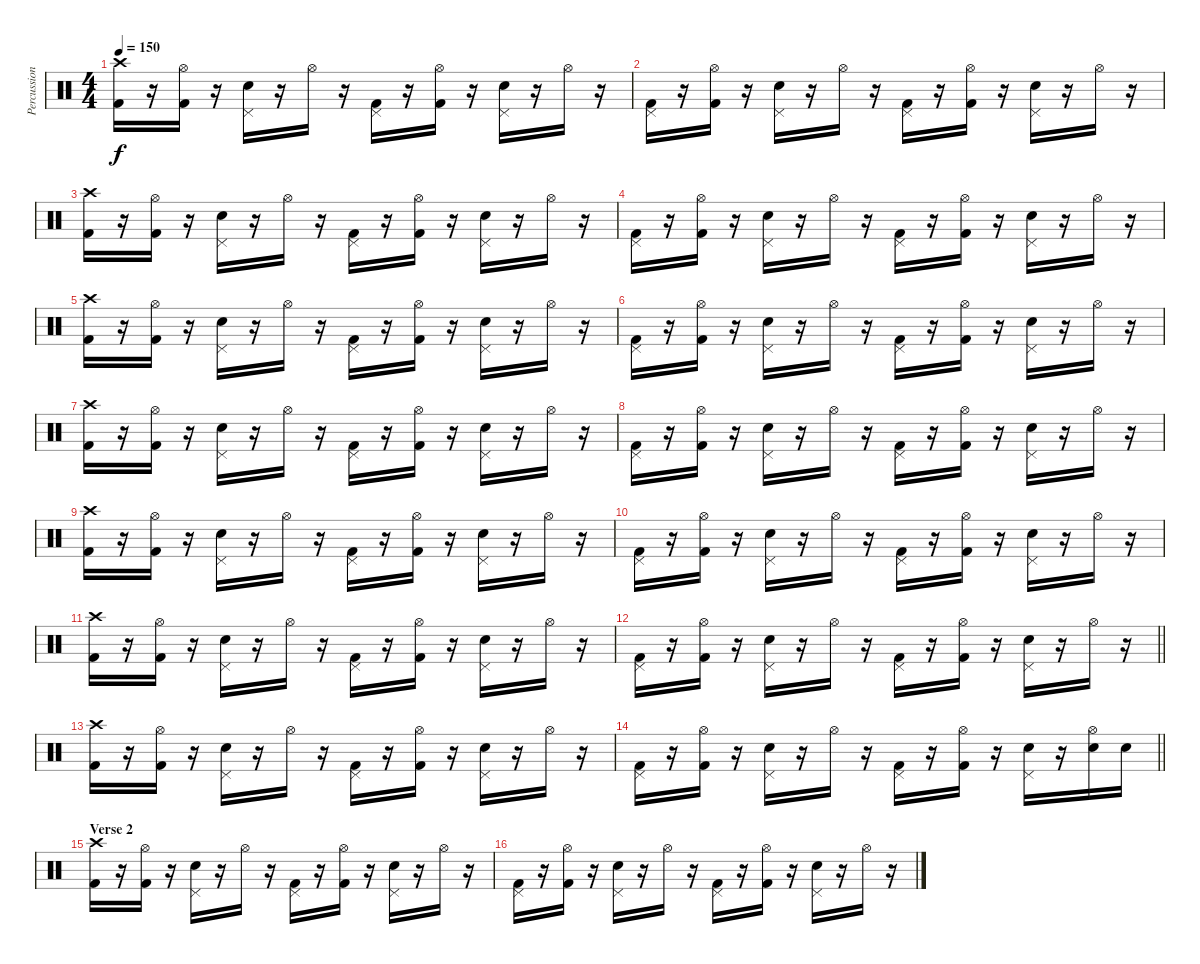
\track ("Percussion" "Percussion") {instrument percussion}
\staff {score}
\articulation defaults
\ts (4 4)
\tempo 150
\clef neutral
\ks c
("Crash high (hit)" "Kick (hit) 2").16{dy f} r.16 ("Hi-Hat (open)" "Kick (hit) 2").16 r.16 ("Pedal Hi-Hat (hit)" "Snare (hit) 2").16 r.16 "Hi-Hat (open)".16 r.16 ("Pedal Hi-Hat (hit)" "Kick (hit) 2").16 r.16 ("Hi-Hat (open)" "Kick (hit) 2").16 r.16 ("Pedal Hi-Hat (hit)" "Snare (hit) 2").16 r.16 "Hi-Hat (open)".16 r.16 |
("Pedal Hi-Hat (hit)" "Kick (hit) 2").16 r.16 ("Hi-Hat (open)" "Kick (hit) 2").16 r.16 ("Pedal Hi-Hat (hit)" "Snare (hit) 2").16 r.16 "Hi-Hat (open)".16 r.16 ("Pedal Hi-Hat (hit)" "Kick (hit) 2").16 r.16 ("Hi-Hat (open)" "Kick (hit) 2").16 r.16 ("Pedal Hi-Hat (hit)" "Snare (hit) 2").16 r.16 "Hi-Hat (open)".16 r.16 |
("Crash high (hit)" "Kick (hit) 2").16 r.16 ("Hi-Hat (open)" "Kick (hit) 2").16 r.16 ("Pedal Hi-Hat (hit)" "Snare (hit) 2").16 r.16 "Hi-Hat (open)".16 r.16 ("Pedal Hi-Hat (hit)" "Kick (hit) 2").16 r.16 ("Hi-Hat (open)" "Kick (hit) 2").16 r.16 ("Pedal Hi-Hat (hit)" "Snare (hit) 2").16 r.16 "Hi-Hat (open)".16 r.16 |
("Pedal Hi-Hat (hit)" "Kick (hit) 2").16 r.16 ("Hi-Hat (open)" "Kick (hit) 2").16 r.16 ("Pedal Hi-Hat (hit)" "Snare (hit) 2").16 r.16 "Hi-Hat (open)".16 r.16 ("Pedal Hi-Hat (hit)" "Kick (hit) 2").16 r.16 ("Hi-Hat (open)" "Kick (hit) 2").16 r.16 ("Pedal Hi-Hat (hit)" "Snare (hit) 2").16 r.16 "Hi-Hat (open)".16 r.16 |
("Crash high (hit)" "Kick (hit) 2").16 r.16 ("Hi-Hat (open)" "Kick (hit) 2").16 r.16 ("Pedal Hi-Hat (hit)" "Snare (hit) 2").16 r.16 "Hi-Hat (open)".16 r.16 ("Pedal Hi-Hat (hit)" "Kick (hit) 2").16 r.16 ("Hi-Hat (open)" "Kick (hit) 2").16 r.16 ("Pedal Hi-Hat (hit)" "Snare (hit) 2").16 r.16 "Hi-Hat (open)".16 r.16 |
("Pedal Hi-Hat (hit)" "Kick (hit) 2").16 r.16 ("Hi-Hat (open)" "Kick (hit) 2").16 r.16 ("Pedal Hi-Hat (hit)" "Snare (hit) 2").16 r.16 "Hi-Hat (open)".16 r.16 ("Pedal Hi-Hat (hit)" "Kick (hit) 2").16 r.16 ("Hi-Hat (open)" "Kick (hit) 2").16 r.16 ("Pedal Hi-Hat (hit)" "Snare (hit) 2").16 r.16 "Hi-Hat (open)".16 r.16 |
("Crash high (hit)" "Kick (hit) 2").16 r.16 ("Hi-Hat (open)" "Kick (hit) 2").16 r.16 ("Pedal Hi-Hat (hit)" "Snare (hit) 2").16 r.16 "Hi-Hat (open)".16 r.16 ("Pedal Hi-Hat (hit)" "Kick (hit) 2").16 r.16 ("Hi-Hat (open)" "Kick (hit) 2").16 r.16 ("Pedal Hi-Hat (hit)" "Snare (hit) 2").16 r.16 "Hi-Hat (open)".16 r.16 |
("Pedal Hi-Hat (hit)" "Kick (hit) 2").16 r.16 ("Hi-Hat (open)" "Kick (hit) 2").16 r.16 ("Pedal Hi-Hat (hit)" "Snare (hit) 2").16 r.16 "Hi-Hat (open)".16 r.16 ("Pedal Hi-Hat (hit)" "Kick (hit) 2").16 r.16 ("Hi-Hat (open)" "Kick (hit) 2").16 r.16 ("Pedal Hi-Hat (hit)" "Snare (hit) 2").16 r.16 "Hi-Hat (open)".16 r.16 |
("Crash high (hit)" "Kick (hit) 2").16 r.16 ("Hi-Hat (open)" "Kick (hit) 2").16 r.16 ("Pedal Hi-Hat (hit)" "Snare (hit) 2").16 r.16 "Hi-Hat (open)".16 r.16 ("Pedal Hi-Hat (hit)" "Kick (hit) 2").16 r.16 ("Hi-Hat (open)" "Kick (hit) 2").16 r.16 ("Pedal Hi-Hat (hit)" "Snare (hit) 2").16 r.16 "Hi-Hat (open)".16 r.16 |
("Pedal Hi-Hat (hit)" "Kick (hit) 2").16 r.16 ("Hi-Hat (open)" "Kick (hit) 2").16 r.16 ("Pedal Hi-Hat (hit)" "Snare (hit) 2").16 r.16 "Hi-Hat (open)".16 r.16 ("Pedal Hi-Hat (hit)" "Kick (hit) 2").16 r.16 ("Hi-Hat (open)" "Kick (hit) 2").16 r.16 ("Pedal Hi-Hat (hit)" "Snare (hit) 2").16 r.16 "Hi-Hat (open)".16 r.16 |
("Crash high (hit)" "Kick (hit) 2").16 r.16 ("Hi-Hat (open)" "Kick (hit) 2").16 r.16 ("Pedal Hi-Hat (hit)" "Snare (hit) 2").16 r.16 "Hi-Hat (open)".16 r.16 ("Pedal Hi-Hat (hit)" "Kick (hit) 2").16 r.16 ("Hi-Hat (open)" "Kick (hit) 2").16 r.16 ("Pedal Hi-Hat (hit)" "Snare (hit) 2").16 r.16 "Hi-Hat (open)".16 r.16 |
\barLineRight lightlight
("Pedal Hi-Hat (hit)" "Kick (hit) 2").16 r.16 ("Hi-Hat (open)" "Kick (hit) 2").16 r.16 ("Pedal Hi-Hat (hit)" "Snare (hit) 2").16 r.16 "Hi-Hat (open)".16 r.16 ("Pedal Hi-Hat (hit)" "Kick (hit) 2").16 r.16 ("Hi-Hat (open)" "Kick (hit) 2").16 r.16 ("Pedal Hi-Hat (hit)" "Snare (hit) 2").16 r.16 "Hi-Hat (open)".16 r.16 |
\section ("" "")
("Crash high (hit)" "Kick (hit) 2").16 r.16 ("Hi-Hat (open)" "Kick (hit) 2").16 r.16 ("Pedal Hi-Hat (hit)" "Snare (hit) 2").16 r.16 "Hi-Hat (open)".16 r.16 ("Pedal Hi-Hat (hit)" "Kick (hit) 2").16 r.16 ("Hi-Hat (open)" "Kick (hit) 2").16 r.16 ("Pedal Hi-Hat (hit)" "Snare (hit) 2").16 r.16 "Hi-Hat (open)".16 r.16 |
\barLineRight lightlight
("Pedal Hi-Hat (hit)" "Kick (hit) 2").16 r.16 ("Hi-Hat (open)" "Kick (hit) 2").16 r.16 ("Pedal Hi-Hat (hit)" "Snare (hit) 2").16 r.16 "Hi-Hat (open)".16 r.16 ("Pedal Hi-Hat (hit)" "Kick (hit) 2").16 r.16 ("Hi-Hat (open)" "Kick (hit) 2").16 r.16 ("Pedal Hi-Hat (hit)" "Snare (hit) 2").16 r.16 ("Hi-Hat (open)" "Snare (hit) 2").16 "Snare (hit) 2".16 |
\section ("" "Verse 2")
("Crash high (hit)" "Kick (hit) 2").16 r.16 ("Hi-Hat (open)" "Kick (hit) 2").16 r.16 ("Pedal Hi-Hat (hit)" "Snare (hit) 2").16 r.16 "Hi-Hat (open)".16 r.16 ("Pedal Hi-Hat (hit)" "Kick (hit) 2").16 r.16 ("Hi-Hat (open)" "Kick (hit) 2").16 r.16 ("Pedal Hi-Hat (hit)" "Snare (hit) 2").16 r.16 "Hi-Hat (open)".16 r.16 |
("Pedal Hi-Hat (hit)" "Kick (hit) 2").16 r.16 ("Hi-Hat (open)" "Kick (hit) 2").16 r.16 ("Pedal Hi-Hat (hit)" "Snare (hit) 2").16 r.16 "Hi-Hat (open)".16 r.16 ("Pedal Hi-Hat (hit)" "Kick (hit) 2").16 r.16 ("Hi-Hat (open)" "Kick (hit) 2").16 r.16 ("Pedal Hi-Hat (hit)" "Snare (hit) 2").16 r.16 "Hi-Hat (open)".16 r.16
